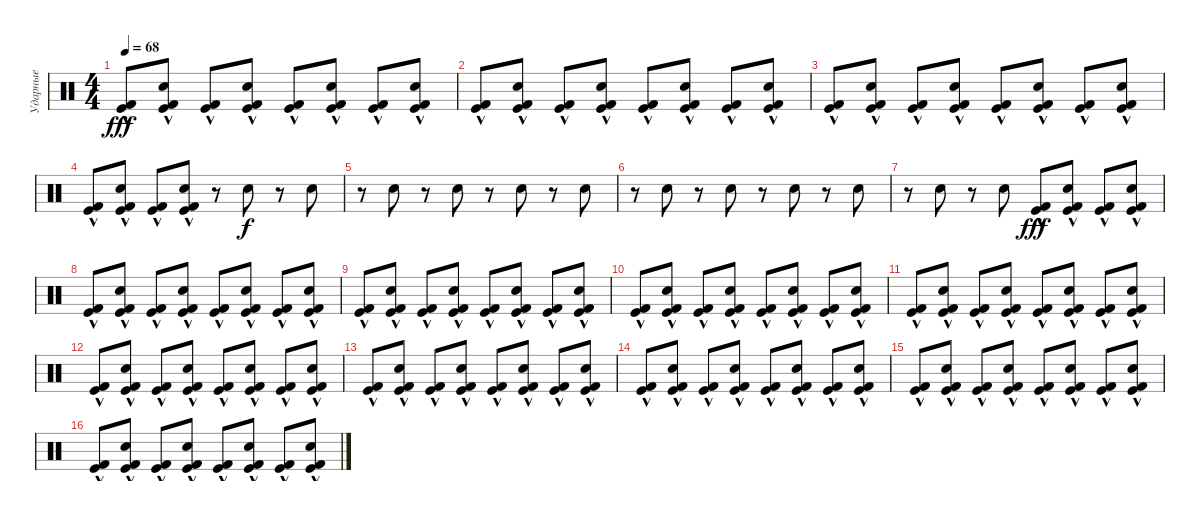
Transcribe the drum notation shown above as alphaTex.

\track ("Ударные" "Ударные") {instrument percussion}
\staff {score}
\articulation defaults
\ts (4 4)
\tempo 68
\clef neutral
\ks c
("Kick (hit)"{hac} "Kick (hit) 2"{hac}).8{dy fff} ("Kick (hit)"{hac} "Kick (hit) 2"{hac} "Hand Clap (hit)").8 ("Kick (hit)"{hac} "Kick (hit) 2"{hac}).8 ("Kick (hit)"{hac} "Kick (hit) 2"{hac} "Hand Clap (hit)").8 ("Kick (hit)"{hac} "Kick (hit) 2"{hac}).8 ("Kick (hit)"{hac} "Kick (hit) 2"{hac} "Hand Clap (hit)").8 ("Kick (hit)"{hac} "Kick (hit) 2"{hac}).8 ("Kick (hit)"{hac} "Kick (hit) 2"{hac} "Hand Clap (hit)").8 |
("Kick (hit)"{hac} "Kick (hit) 2"{hac}).8 ("Kick (hit)"{hac} "Kick (hit) 2"{hac} "Hand Clap (hit)").8 ("Kick (hit)"{hac} "Kick (hit) 2"{hac}).8 ("Kick (hit)"{hac} "Kick (hit) 2"{hac} "Hand Clap (hit)").8 ("Kick (hit)"{hac} "Kick (hit) 2"{hac}).8 ("Kick (hit)"{hac} "Kick (hit) 2"{hac} "Hand Clap (hit)").8 ("Kick (hit)"{hac} "Kick (hit) 2"{hac}).8 ("Kick (hit)"{hac} "Kick (hit) 2"{hac} "Hand Clap (hit)").8 |
("Kick (hit)"{hac} "Kick (hit) 2"{hac}).8 ("Kick (hit)"{hac} "Kick (hit) 2"{hac} "Hand Clap (hit)").8 ("Kick (hit)"{hac} "Kick (hit) 2"{hac}).8 ("Kick (hit)"{hac} "Kick (hit) 2"{hac} "Hand Clap (hit)").8 ("Kick (hit)"{hac} "Kick (hit) 2"{hac}).8 ("Kick (hit)"{hac} "Kick (hit) 2"{hac} "Hand Clap (hit)").8 ("Kick (hit)"{hac} "Kick (hit) 2"{hac}).8 ("Kick (hit)"{hac} "Kick (hit) 2"{hac} "Hand Clap (hit)").8 |
("Kick (hit)"{hac} "Kick (hit) 2"{hac}).8 ("Kick (hit)"{hac} "Kick (hit) 2"{hac} "Hand Clap (hit)").8 ("Kick (hit)"{hac} "Kick (hit) 2"{hac}).8 ("Kick (hit)"{hac} "Kick (hit) 2"{hac} "Hand Clap (hit)").8 r.8 "Hand Clap (hit)".8{dy f} r.8 "Hand Clap (hit)".8 |
r.8 "Hand Clap (hit)".8 r.8 "Hand Clap (hit)".8 r.8 "Hand Clap (hit)".8 r.8 "Hand Clap (hit)".8 |
r.8 "Hand Clap (hit)".8 r.8 "Hand Clap (hit)".8 r.8 "Hand Clap (hit)".8 r.8 "Hand Clap (hit)".8 |
r.8 "Hand Clap (hit)".8 r.8 "Hand Clap (hit)".8 ("Kick (hit)"{hac} "Kick (hit) 2"{hac}).8{dy fff} ("Kick (hit)"{hac} "Kick (hit) 2"{hac} "Hand Clap (hit)").8 ("Kick (hit)"{hac} "Kick (hit) 2"{hac}).8 ("Kick (hit)"{hac} "Kick (hit) 2"{hac} "Hand Clap (hit)").8 |
("Kick (hit)"{hac} "Kick (hit) 2"{hac}).8 ("Kick (hit)"{hac} "Kick (hit) 2"{hac} "Hand Clap (hit)").8 ("Kick (hit)"{hac} "Kick (hit) 2"{hac}).8 ("Kick (hit)"{hac} "Kick (hit) 2"{hac} "Hand Clap (hit)").8 ("Kick (hit)"{hac} "Kick (hit) 2"{hac}).8 ("Kick (hit)"{hac} "Kick (hit) 2"{hac} "Hand Clap (hit)").8 ("Kick (hit)"{hac} "Kick (hit) 2"{hac}).8 ("Kick (hit)"{hac} "Kick (hit) 2"{hac} "Hand Clap (hit)").8 |
("Kick (hit)"{hac} "Kick (hit) 2"{hac}).8 ("Kick (hit)"{hac} "Kick (hit) 2"{hac} "Hand Clap (hit)").8 ("Kick (hit)"{hac} "Kick (hit) 2"{hac}).8 ("Kick (hit)"{hac} "Kick (hit) 2"{hac} "Hand Clap (hit)").8 ("Kick (hit)"{hac} "Kick (hit) 2"{hac}).8 ("Kick (hit)"{hac} "Kick (hit) 2"{hac} "Hand Clap (hit)").8 ("Kick (hit)"{hac} "Kick (hit) 2"{hac}).8 ("Kick (hit)"{hac} "Kick (hit) 2"{hac} "Hand Clap (hit)").8 |
("Kick (hit)"{hac} "Kick (hit) 2"{hac}).8 ("Kick (hit)"{hac} "Kick (hit) 2"{hac} "Hand Clap (hit)").8 ("Kick (hit)"{hac} "Kick (hit) 2"{hac}).8 ("Kick (hit)"{hac} "Kick (hit) 2"{hac} "Hand Clap (hit)").8 ("Kick (hit)"{hac} "Kick (hit) 2"{hac}).8 ("Kick (hit)"{hac} "Kick (hit) 2"{hac} "Hand Clap (hit)").8 ("Kick (hit)"{hac} "Kick (hit) 2"{hac}).8 ("Kick (hit)"{hac} "Kick (hit) 2"{hac} "Hand Clap (hit)").8 |
("Kick (hit)"{hac} "Kick (hit) 2"{hac}).8 ("Kick (hit)"{hac} "Kick (hit) 2"{hac} "Hand Clap (hit)").8 ("Kick (hit)"{hac} "Kick (hit) 2"{hac}).8 ("Kick (hit)"{hac} "Kick (hit) 2"{hac} "Hand Clap (hit)").8 ("Kick (hit)"{hac} "Kick (hit) 2"{hac}).8 ("Kick (hit)"{hac} "Kick (hit) 2"{hac} "Hand Clap (hit)").8 ("Kick (hit)"{hac} "Kick (hit) 2"{hac}).8 ("Kick (hit)"{hac} "Kick (hit) 2"{hac} "Hand Clap (hit)").8 |
("Kick (hit)"{hac} "Kick (hit) 2"{hac}).8 ("Kick (hit)"{hac} "Kick (hit) 2"{hac} "Hand Clap (hit)").8 ("Kick (hit)"{hac} "Kick (hit) 2"{hac}).8 ("Kick (hit)"{hac} "Kick (hit) 2"{hac} "Hand Clap (hit)").8 ("Kick (hit)"{hac} "Kick (hit) 2"{hac}).8 ("Kick (hit)"{hac} "Kick (hit) 2"{hac} "Hand Clap (hit)").8 ("Kick (hit)"{hac} "Kick (hit) 2"{hac}).8 ("Kick (hit)"{hac} "Kick (hit) 2"{hac} "Hand Clap (hit)").8 |
("Kick (hit)"{hac} "Kick (hit) 2"{hac}).8 ("Kick (hit)"{hac} "Kick (hit) 2"{hac} "Hand Clap (hit)").8 ("Kick (hit)"{hac} "Kick (hit) 2"{hac}).8 ("Kick (hit)"{hac} "Kick (hit) 2"{hac} "Hand Clap (hit)").8 ("Kick (hit)"{hac} "Kick (hit) 2"{hac}).8 ("Kick (hit)"{hac} "Kick (hit) 2"{hac} "Hand Clap (hit)").8 ("Kick (hit)"{hac} "Kick (hit) 2"{hac}).8 ("Kick (hit)"{hac} "Kick (hit) 2"{hac} "Hand Clap (hit)").8 |
("Kick (hit)"{hac} "Kick (hit) 2"{hac}).8 ("Kick (hit)"{hac} "Kick (hit) 2"{hac} "Hand Clap (hit)").8 ("Kick (hit)"{hac} "Kick (hit) 2"{hac}).8 ("Kick (hit)"{hac} "Kick (hit) 2"{hac} "Hand Clap (hit)").8 ("Kick (hit)"{hac} "Kick (hit) 2"{hac}).8 ("Kick (hit)"{hac} "Kick (hit) 2"{hac} "Hand Clap (hit)").8 ("Kick (hit)"{hac} "Kick (hit) 2"{hac}).8 ("Kick (hit)"{hac} "Kick (hit) 2"{hac} "Hand Clap (hit)").8 |
("Kick (hit)"{hac} "Kick (hit) 2"{hac}).8 ("Kick (hit)"{hac} "Kick (hit) 2"{hac} "Hand Clap (hit)").8 ("Kick (hit)"{hac} "Kick (hit) 2"{hac}).8 ("Kick (hit)"{hac} "Kick (hit) 2"{hac} "Hand Clap (hit)").8 ("Kick (hit)"{hac} "Kick (hit) 2"{hac}).8 ("Kick (hit)"{hac} "Kick (hit) 2"{hac} "Hand Clap (hit)").8 ("Kick (hit)"{hac} "Kick (hit) 2"{hac}).8 ("Kick (hit)"{hac} "Kick (hit) 2"{hac} "Hand Clap (hit)").8 |
("Kick (hit)"{hac} "Kick (hit) 2"{hac}).8 ("Kick (hit)"{hac} "Kick (hit) 2"{hac} "Hand Clap (hit)").8 ("Kick (hit)"{hac} "Kick (hit) 2"{hac}).8 ("Kick (hit)"{hac} "Kick (hit) 2"{hac} "Hand Clap (hit)").8 ("Kick (hit)"{hac} "Kick (hit) 2"{hac}).8 ("Kick (hit)"{hac} "Kick (hit) 2"{hac} "Hand Clap (hit)").8 ("Kick (hit)"{hac} "Kick (hit) 2"{hac}).8 ("Kick (hit)"{hac} "Kick (hit) 2"{hac} "Hand Clap (hit)").8
